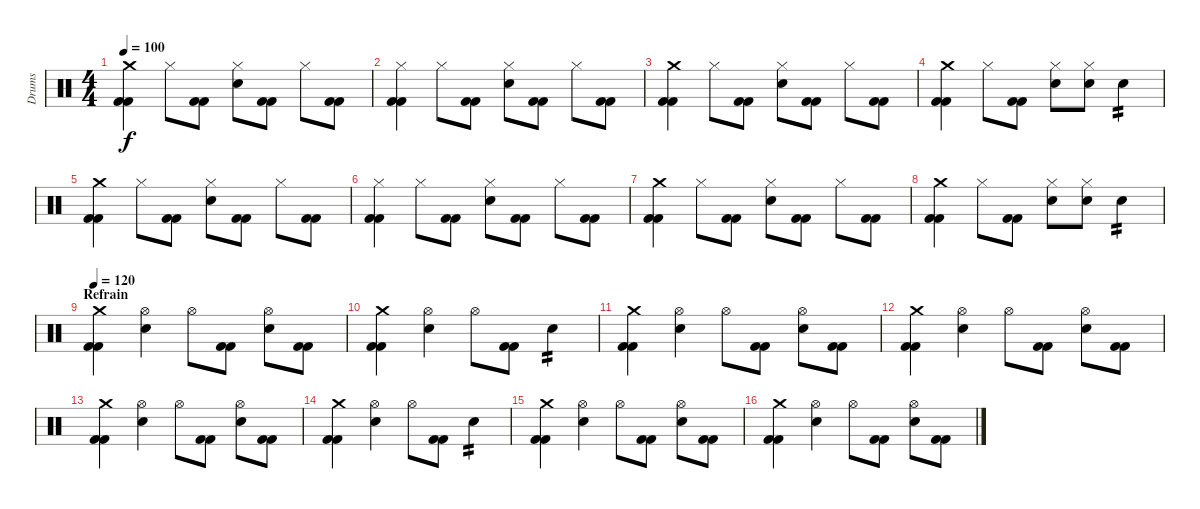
\track ("Drums" "Drums") {instrument percussion}
\staff {score}
\articulation defaults
\ts (4 4)
\tempo 100
\clef neutral
\ks c
("Kick (hit) 2" "Kick (hit) 2" "Crash medium (hit)").4{dy f} "Hi-Hat (closed)".8 ("Kick (hit) 2" "Kick (hit) 2").8 ("Electric Snare (hit)" "Hi-Hat (closed)").8 ("Kick (hit) 2" "Kick (hit) 2").8 "Hi-Hat (closed)".8 ("Kick (hit) 2" "Kick (hit) 2").8 |
("Kick (hit) 2" "Kick (hit) 2" "Hi-Hat (closed)").4 "Hi-Hat (closed)".8 ("Kick (hit) 2" "Kick (hit) 2").8 ("Electric Snare (hit)" "Hi-Hat (closed)").8 ("Kick (hit) 2" "Kick (hit) 2").8 "Hi-Hat (closed)".8 ("Kick (hit) 2" "Kick (hit) 2").8 |
("Kick (hit) 2" "Kick (hit) 2" "Crash medium (hit)").4 "Hi-Hat (closed)".8 ("Kick (hit) 2" "Kick (hit) 2").8 ("Electric Snare (hit)" "Hi-Hat (closed)").8 ("Kick (hit) 2" "Kick (hit) 2").8 "Hi-Hat (closed)".8 ("Kick (hit) 2" "Kick (hit) 2").8 |
("Kick (hit) 2" "Kick (hit) 2" "Crash medium (hit)").4 "Hi-Hat (closed)".8 ("Kick (hit) 2" "Kick (hit) 2").8 ("Electric Snare (hit)" "Hi-Hat (closed)").8 ("Hi-Hat (closed)" "Electric Snare (hit)").8 "Electric Snare (hit)".4{tp 2} |
("Kick (hit) 2" "Kick (hit) 2" "Crash medium (hit)").4 "Hi-Hat (closed)".8 ("Kick (hit) 2" "Kick (hit) 2").8 ("Electric Snare (hit)" "Hi-Hat (closed)").8 ("Kick (hit) 2" "Kick (hit) 2").8 "Hi-Hat (closed)".8 ("Kick (hit) 2" "Kick (hit) 2").8 |
("Kick (hit) 2" "Kick (hit) 2" "Hi-Hat (closed)").4 "Hi-Hat (closed)".8 ("Kick (hit) 2" "Kick (hit) 2").8 ("Electric Snare (hit)" "Hi-Hat (closed)").8 ("Kick (hit) 2" "Kick (hit) 2").8 "Hi-Hat (closed)".8 ("Kick (hit) 2" "Kick (hit) 2").8 |
("Kick (hit) 2" "Kick (hit) 2" "Crash medium (hit)").4 "Hi-Hat (closed)".8 ("Kick (hit) 2" "Kick (hit) 2").8 ("Electric Snare (hit)" "Hi-Hat (closed)").8 ("Kick (hit) 2" "Kick (hit) 2").8 "Hi-Hat (closed)".8 ("Kick (hit) 2" "Kick (hit) 2").8 |
("Kick (hit) 2" "Kick (hit) 2" "Crash medium (hit)").4 "Hi-Hat (closed)".8 ("Kick (hit) 2" "Kick (hit) 2").8 ("Electric Snare (hit)" "Hi-Hat (closed)").8 ("Hi-Hat (closed)" "Electric Snare (hit)").8 "Electric Snare (hit)".4{tp 2} |
\section ("" "Refrain")
\tempo 120
("Crash medium (hit)" "Kick (hit) 2" "Kick (hit) 2").4 ("Electric Snare (hit)" "Hi-Hat (open)").4 "Hi-Hat (open)".8 ("Kick (hit) 2" "Kick (hit) 2").8 ("Electric Snare (hit)" "Hi-Hat (open)").8 ("Kick (hit) 2" "Kick (hit) 2").8 |
("Crash medium (hit)" "Kick (hit) 2" "Kick (hit) 2").4 ("Electric Snare (hit)" "Hi-Hat (open)").4 "Hi-Hat (open)".8 ("Kick (hit) 2" "Kick (hit) 2").8 "Electric Snare (hit)".4{tp 2} |
("Crash medium (hit)" "Kick (hit) 2" "Kick (hit) 2").4 ("Electric Snare (hit)" "Hi-Hat (open)").4 "Hi-Hat (open)".8 ("Kick (hit) 2" "Kick (hit) 2").8 ("Electric Snare (hit)" "Hi-Hat (open)").8 ("Kick (hit) 2" "Kick (hit) 2").8 |
("Crash medium (hit)" "Kick (hit) 2" "Kick (hit) 2").4 ("Electric Snare (hit)" "Hi-Hat (open)").4 "Hi-Hat (open)".8 ("Kick (hit) 2" "Kick (hit) 2").8 ("Electric Snare (hit)" "Hi-Hat (open)").8 ("Kick (hit) 2" "Kick (hit) 2").8 |
("Crash medium (hit)" "Kick (hit) 2" "Kick (hit) 2").4 ("Electric Snare (hit)" "Hi-Hat (open)").4 "Hi-Hat (open)".8 ("Kick (hit) 2" "Kick (hit) 2").8 ("Electric Snare (hit)" "Hi-Hat (open)").8 ("Kick (hit) 2" "Kick (hit) 2").8 |
("Crash medium (hit)" "Kick (hit) 2" "Kick (hit) 2").4 ("Electric Snare (hit)" "Hi-Hat (open)").4 "Hi-Hat (open)".8 ("Kick (hit) 2" "Kick (hit) 2").8 "Electric Snare (hit)".4{tp 2} |
("Crash medium (hit)" "Kick (hit) 2" "Kick (hit) 2").4 ("Electric Snare (hit)" "Hi-Hat (open)").4 "Hi-Hat (open)".8 ("Kick (hit) 2" "Kick (hit) 2").8 ("Electric Snare (hit)" "Hi-Hat (open)").8 ("Kick (hit) 2" "Kick (hit) 2").8 |
("Crash medium (hit)" "Kick (hit) 2" "Kick (hit) 2").4 ("Electric Snare (hit)" "Hi-Hat (open)").4 "Hi-Hat (open)".8 ("Kick (hit) 2" "Kick (hit) 2").8 ("Electric Snare (hit)" "Hi-Hat (open)").8 ("Kick (hit) 2" "Kick (hit) 2").8
